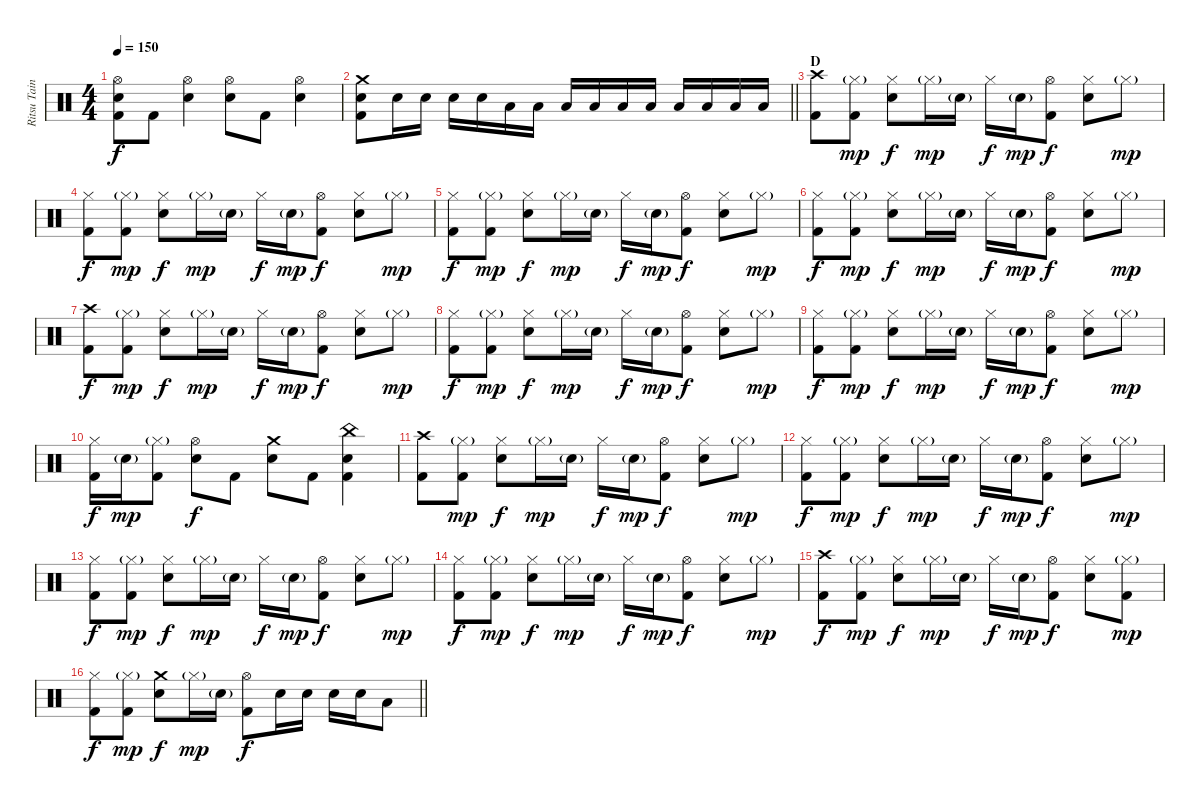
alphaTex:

\track ("Ritsu Tainaka" "Ritsu Tain") {instrument percussion}
\staff {score}
\articulation defaults
\ts (4 4)
\tempo 150
\clef neutral
\ks c
("Hi-Hat (open)" "Electric Snare (hit)" "Kick (hit) 2").8{dy f} "Kick (hit) 2".8 ("Hi-Hat (open)" "Electric Snare (hit)").4 ("Hi-Hat (open)" "Electric Snare (hit)").8 "Kick (hit) 2".8 ("Hi-Hat (open)" "Electric Snare (hit)").4 |
\barLineRight lightlight
("Crash medium (hit)" "Electric Snare (hit)" "Kick (hit) 2").8 "Electric Snare (hit)".16 "Electric Snare (hit)".16 "Electric Snare (hit)".16 "Electric Snare (hit)".16 "Low Tom (hit)".16 "Low Tom (hit)".16 "Low Tom (hit)".16 "Low Tom (hit)".16 "Low Tom (hit)".16 "Low Tom (hit)".16 "Low Floor Tom (hit)".16 "Low Floor Tom (hit)".16 "Low Floor Tom (hit)".16 "Low Floor Tom (hit)".16 |
\section ("" "D")
("Crash high (hit)" "Kick (hit) 2").8 ("Hi-Hat (closed)"{g} "Kick (hit) 2").8{dy mp} ("Hi-Hat (closed)" "Electric Snare (hit)").8{dy f} "Hi-Hat (closed)"{g}.16{dy mp} "Electric Snare (hit)"{g}.16 "Hi-Hat (closed)".16{dy f} "Electric Snare (hit)"{g}.16{dy mp} ("Hi-Hat (open)" "Kick (hit) 2").8{dy f} ("Hi-Hat (closed)" "Electric Snare (hit)").8 "Hi-Hat (closed)"{g}.8{dy mp} |
("Hi-Hat (closed)" "Kick (hit) 2").8{dy f} ("Hi-Hat (closed)"{g} "Kick (hit) 2").8{dy mp} ("Hi-Hat (closed)" "Electric Snare (hit)").8{dy f} "Hi-Hat (closed)"{g}.16{dy mp} "Electric Snare (hit)"{g}.16 "Hi-Hat (closed)".16{dy f} "Electric Snare (hit)"{g}.16{dy mp} ("Hi-Hat (open)" "Kick (hit) 2").8{dy f} ("Hi-Hat (closed)" "Electric Snare (hit)").8 "Hi-Hat (closed)"{g}.8{dy mp} |
("Hi-Hat (closed)" "Kick (hit) 2").8{dy f} ("Hi-Hat (closed)"{g} "Kick (hit) 2").8{dy mp} ("Hi-Hat (closed)" "Electric Snare (hit)").8{dy f} "Hi-Hat (closed)"{g}.16{dy mp} "Electric Snare (hit)"{g}.16 "Hi-Hat (closed)".16{dy f} "Electric Snare (hit)"{g}.16{dy mp} ("Hi-Hat (open)" "Kick (hit) 2").8{dy f} ("Hi-Hat (closed)" "Electric Snare (hit)").8 "Hi-Hat (closed)"{g}.8{dy mp} |
("Hi-Hat (closed)" "Kick (hit) 2").8{dy f} ("Hi-Hat (closed)"{g} "Kick (hit) 2").8{dy mp} ("Hi-Hat (closed)" "Electric Snare (hit)").8{dy f} "Hi-Hat (closed)"{g}.16{dy mp} "Electric Snare (hit)"{g}.16 "Hi-Hat (closed)".16{dy f} "Electric Snare (hit)"{g}.16{dy mp} ("Hi-Hat (open)" "Kick (hit) 2").8{dy f} ("Hi-Hat (closed)" "Electric Snare (hit)").8 "Hi-Hat (closed)"{g}.8{dy mp} |
("Crash high (hit)" "Kick (hit) 2").8{dy f} ("Hi-Hat (closed)"{g} "Kick (hit) 2").8{dy mp} ("Hi-Hat (closed)" "Electric Snare (hit)").8{dy f} "Hi-Hat (closed)"{g}.16{dy mp} "Electric Snare (hit)"{g}.16 "Hi-Hat (closed)".16{dy f} "Electric Snare (hit)"{g}.16{dy mp} ("Hi-Hat (open)" "Kick (hit) 2").8{dy f} ("Hi-Hat (closed)" "Electric Snare (hit)").8 "Hi-Hat (closed)"{g}.8{dy mp} |
("Hi-Hat (closed)" "Kick (hit) 2").8{dy f} ("Hi-Hat (closed)"{g} "Kick (hit) 2").8{dy mp} ("Hi-Hat (closed)" "Electric Snare (hit)").8{dy f} "Hi-Hat (closed)"{g}.16{dy mp} "Electric Snare (hit)"{g}.16 "Hi-Hat (closed)".16{dy f} "Electric Snare (hit)"{g}.16{dy mp} ("Hi-Hat (open)" "Kick (hit) 2").8{dy f} ("Hi-Hat (closed)" "Electric Snare (hit)").8 "Hi-Hat (closed)"{g}.8{dy mp} |
("Hi-Hat (closed)" "Kick (hit) 2").8{dy f} ("Hi-Hat (closed)"{g} "Kick (hit) 2").8{dy mp} ("Hi-Hat (closed)" "Electric Snare (hit)").8{dy f} "Hi-Hat (closed)"{g}.16{dy mp} "Electric Snare (hit)"{g}.16 "Hi-Hat (closed)".16{dy f} "Electric Snare (hit)"{g}.16{dy mp} ("Hi-Hat (open)" "Kick (hit) 2").8{dy f} ("Hi-Hat (closed)" "Electric Snare (hit)").8 "Hi-Hat (closed)"{g}.8{dy mp} |
("Hi-Hat (closed)" "Kick (hit) 2").16{dy f} "Electric Snare (hit)"{g}.16{dy mp} ("Hi-Hat (closed)"{g} "Kick (hit) 2").8 ("Hi-Hat (open)" "Electric Snare (hit)").8{dy f} "Kick (hit) 2".8 ("Crash medium (hit)" "Electric Snare (hit)").8 "Kick (hit) 2".8 ("China (hit)" "Electric Snare (hit)" "Kick (hit) 2").4 |
("Crash high (hit)" "Kick (hit) 2").8 ("Hi-Hat (closed)"{g} "Kick (hit) 2").8{dy mp} ("Hi-Hat (closed)" "Electric Snare (hit)").8{dy f} "Hi-Hat (closed)"{g}.16{dy mp} "Electric Snare (hit)"{g}.16 "Hi-Hat (closed)".16{dy f} "Electric Snare (hit)"{g}.16{dy mp} ("Hi-Hat (open)" "Kick (hit) 2").8{dy f} ("Hi-Hat (closed)" "Electric Snare (hit)").8 "Hi-Hat (closed)"{g}.8{dy mp} |
("Hi-Hat (closed)" "Kick (hit) 2").8{dy f} ("Hi-Hat (closed)"{g} "Kick (hit) 2").8{dy mp} ("Hi-Hat (closed)" "Electric Snare (hit)").8{dy f} "Hi-Hat (closed)"{g}.16{dy mp} "Electric Snare (hit)"{g}.16 "Hi-Hat (closed)".16{dy f} "Electric Snare (hit)"{g}.16{dy mp} ("Hi-Hat (open)" "Kick (hit) 2").8{dy f} ("Hi-Hat (closed)" "Electric Snare (hit)").8 "Hi-Hat (closed)"{g}.8{dy mp} |
("Hi-Hat (closed)" "Kick (hit) 2").8{dy f} ("Hi-Hat (closed)"{g} "Kick (hit) 2").8{dy mp} ("Hi-Hat (closed)" "Electric Snare (hit)").8{dy f} "Hi-Hat (closed)"{g}.16{dy mp} "Electric Snare (hit)"{g}.16 "Hi-Hat (closed)".16{dy f} "Electric Snare (hit)"{g}.16{dy mp} ("Hi-Hat (open)" "Kick (hit) 2").8{dy f} ("Hi-Hat (closed)" "Electric Snare (hit)").8 "Hi-Hat (closed)"{g}.8{dy mp} |
("Hi-Hat (closed)" "Kick (hit) 2").8{dy f} ("Hi-Hat (closed)"{g} "Kick (hit) 2").8{dy mp} ("Hi-Hat (closed)" "Electric Snare (hit)").8{dy f} "Hi-Hat (closed)"{g}.16{dy mp} "Electric Snare (hit)"{g}.16 "Hi-Hat (closed)".16{dy f} "Electric Snare (hit)"{g}.16{dy mp} ("Hi-Hat (open)" "Kick (hit) 2").8{dy f} ("Hi-Hat (closed)" "Electric Snare (hit)").8 "Hi-Hat (closed)"{g}.8{dy mp} |
("Crash high (hit)" "Kick (hit) 2").8{dy f} ("Hi-Hat (closed)"{g} "Kick (hit) 2").8{dy mp} ("Hi-Hat (closed)" "Electric Snare (hit)").8{dy f} "Hi-Hat (closed)"{g}.16{dy mp} "Electric Snare (hit)"{g}.16 "Hi-Hat (closed)".16{dy f} "Electric Snare (hit)"{g}.16{dy mp} ("Hi-Hat (open)" "Kick (hit) 2").8{dy f} ("Hi-Hat (closed)" "Electric Snare (hit)").8 ("Hi-Hat (closed)"{g} "Kick (hit) 2").8{dy mp} |
\barLineRight lightlight
("Hi-Hat (closed)" "Kick (hit) 2").8{dy f} ("Hi-Hat (closed)"{g} "Kick (hit) 2").8{dy mp} ("Crash medium (hit)" "Electric Snare (hit)").8{dy f} "Hi-Hat (closed)"{g}.16{dy mp} "Electric Snare (hit)"{g}.16 ("Hi-Hat (open)" "Kick (hit) 2").8{dy f} "Electric Snare (hit)".16 "Electric Snare (hit)".16 "Electric Snare (hit)".16 "Electric Snare (hit)".16 "Low Tom (hit)".8
